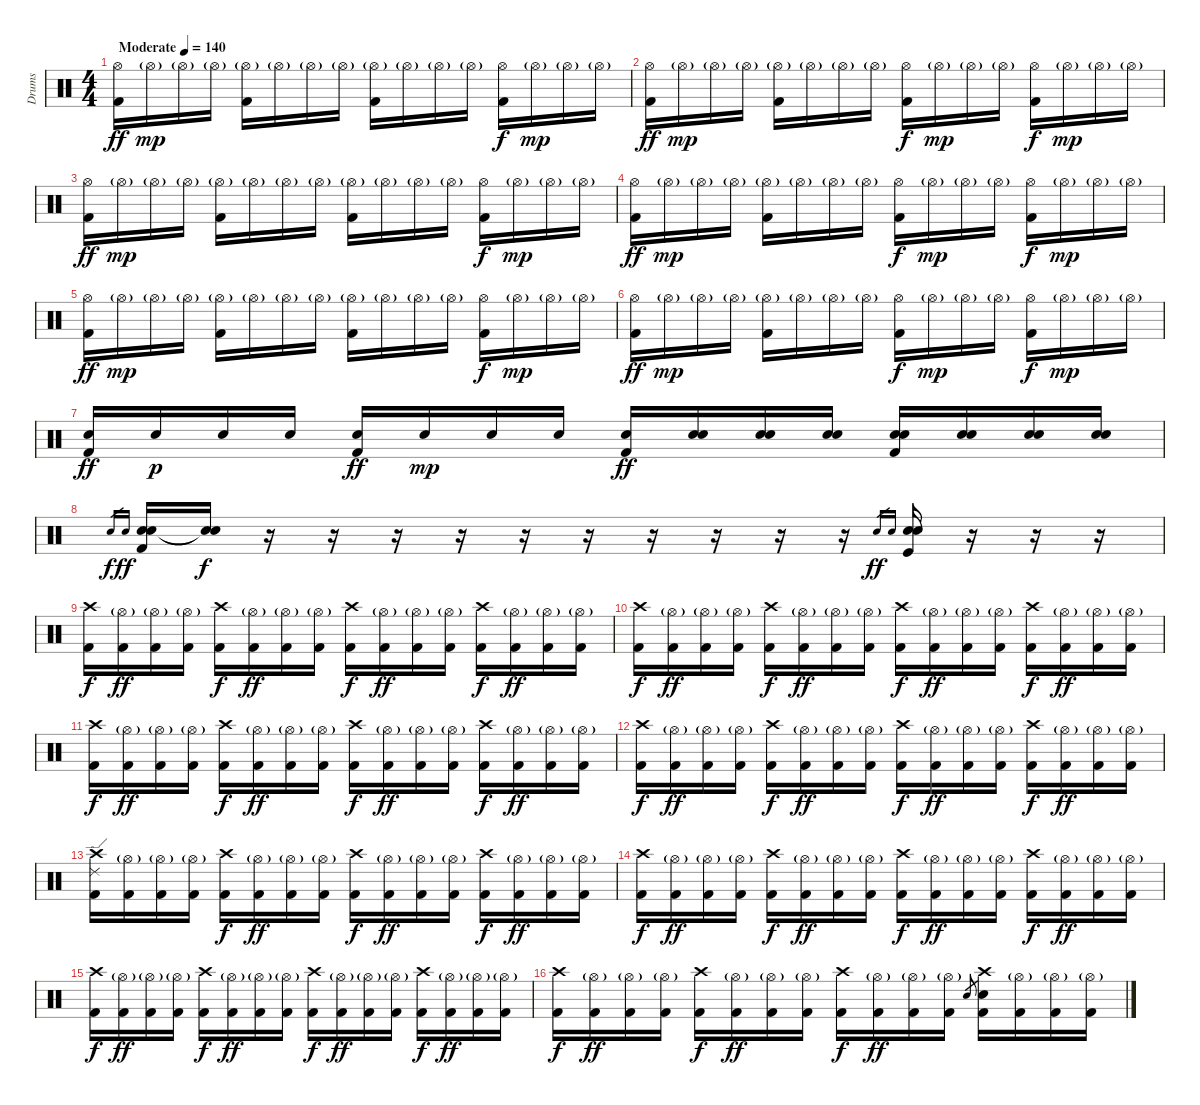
\track ("Drums" "Drums") {instrument percussion}
\staff {score}
\articulation defaults
\ts (4 4)
\tempo (140 "Moderate")
\clef neutral
\ks c
("Hi-Hat (open)" "Kick (hit) 2").16{dy ff} "Hi-Hat (open)"{g}.16{dy mp} "Hi-Hat (open)"{g}.16 "Hi-Hat (open)"{g}.16 ("Hi-Hat (open)"{g} "Kick (hit) 2").16 "Hi-Hat (open)"{g}.16 "Hi-Hat (open)"{g}.16 "Hi-Hat (open)"{g}.16 ("Hi-Hat (open)"{g} "Kick (hit) 2").16 "Hi-Hat (open)"{g}.16 "Hi-Hat (open)"{g}.16 "Hi-Hat (open)"{g}.16 ("Hi-Hat (open)" "Kick (hit) 2").16{dy f} "Hi-Hat (open)"{g}.16{dy mp} "Hi-Hat (open)"{g}.16 "Hi-Hat (open)"{g}.16 |
("Hi-Hat (open)" "Kick (hit) 2").16{dy ff} "Hi-Hat (open)"{g}.16{dy mp} "Hi-Hat (open)"{g}.16 "Hi-Hat (open)"{g}.16 ("Hi-Hat (open)"{g} "Kick (hit) 2").16 "Hi-Hat (open)"{g}.16 "Hi-Hat (open)"{g}.16 "Hi-Hat (open)"{g}.16 ("Hi-Hat (open)" "Kick (hit) 2").16{dy f} "Hi-Hat (open)"{g}.16{dy mp} "Hi-Hat (open)"{g}.16 "Hi-Hat (open)"{g}.16 ("Hi-Hat (open)" "Kick (hit) 2").16{dy f} "Hi-Hat (open)"{g}.16{dy mp} "Hi-Hat (open)"{g}.16 "Hi-Hat (open)"{g}.16 |
("Hi-Hat (open)" "Kick (hit) 2").16{dy ff} "Hi-Hat (open)"{g}.16{dy mp} "Hi-Hat (open)"{g}.16 "Hi-Hat (open)"{g}.16 ("Hi-Hat (open)"{g} "Kick (hit) 2").16 "Hi-Hat (open)"{g}.16 "Hi-Hat (open)"{g}.16 "Hi-Hat (open)"{g}.16 ("Hi-Hat (open)"{g} "Kick (hit) 2").16 "Hi-Hat (open)"{g}.16 "Hi-Hat (open)"{g}.16 "Hi-Hat (open)"{g}.16 ("Hi-Hat (open)" "Kick (hit) 2").16{dy f} "Hi-Hat (open)"{g}.16{dy mp} "Hi-Hat (open)"{g}.16 "Hi-Hat (open)"{g}.16 |
("Hi-Hat (open)" "Kick (hit) 2").16{dy ff} "Hi-Hat (open)"{g}.16{dy mp} "Hi-Hat (open)"{g}.16 "Hi-Hat (open)"{g}.16 ("Hi-Hat (open)"{g} "Kick (hit) 2").16 "Hi-Hat (open)"{g}.16 "Hi-Hat (open)"{g}.16 "Hi-Hat (open)"{g}.16 ("Hi-Hat (open)" "Kick (hit) 2").16{dy f} "Hi-Hat (open)"{g}.16{dy mp} "Hi-Hat (open)"{g}.16 "Hi-Hat (open)"{g}.16 ("Hi-Hat (open)" "Kick (hit) 2").16{dy f} "Hi-Hat (open)"{g}.16{dy mp} "Hi-Hat (open)"{g}.16 "Hi-Hat (open)"{g}.16 |
("Hi-Hat (open)" "Kick (hit) 2").16{dy ff} "Hi-Hat (open)"{g}.16{dy mp} "Hi-Hat (open)"{g}.16 "Hi-Hat (open)"{g}.16 ("Hi-Hat (open)"{g} "Kick (hit) 2").16 "Hi-Hat (open)"{g}.16 "Hi-Hat (open)"{g}.16 "Hi-Hat (open)"{g}.16 ("Hi-Hat (open)"{g} "Kick (hit) 2").16 "Hi-Hat (open)"{g}.16 "Hi-Hat (open)"{g}.16 "Hi-Hat (open)"{g}.16 ("Hi-Hat (open)" "Kick (hit) 2").16{dy f} "Hi-Hat (open)"{g}.16{dy mp} "Hi-Hat (open)"{g}.16 "Hi-Hat (open)"{g}.16 |
("Hi-Hat (open)" "Kick (hit) 2").16{dy ff} "Hi-Hat (open)"{g}.16{dy mp} "Hi-Hat (open)"{g}.16 "Hi-Hat (open)"{g}.16 ("Hi-Hat (open)"{g} "Kick (hit) 2").16 "Hi-Hat (open)"{g}.16 "Hi-Hat (open)"{g}.16 "Hi-Hat (open)"{g}.16 ("Hi-Hat (open)" "Kick (hit) 2").16{dy f} "Hi-Hat (open)"{g}.16{dy mp} "Hi-Hat (open)"{g}.16 "Hi-Hat (open)"{g}.16 ("Hi-Hat (open)" "Kick (hit) 2").16{dy f} "Hi-Hat (open)"{g}.16{dy mp} "Hi-Hat (open)"{g}.16 "Hi-Hat (open)"{g}.16 |
("Electric Snare (hit)" "Kick (hit) 2").16{dy ff} "Electric Snare (hit)".16{dy p} "Electric Snare (hit)".16 "Electric Snare (hit)".16 ("Electric Snare (hit)" "Kick (hit) 2").16{dy ff} "Electric Snare (hit)".16{dy mp} "Electric Snare (hit)".16 "Electric Snare (hit)".16 ("Electric Snare (hit)" "Kick (hit) 2").16{dy ff} ("Electric Snare (hit)" "Electric Snare (hit)").16 ("Electric Snare (hit)" "Electric Snare (hit)").16 ("Electric Snare (hit)" "Electric Snare (hit)").16 ("Electric Snare (hit)" "Electric Snare (hit)" "Kick (hit) 2").16 ("Electric Snare (hit)" "Electric Snare (hit)").16 ("Electric Snare (hit)" "Electric Snare (hit)").16 ("Electric Snare (hit)" "Electric Snare (hit)").16 |
"Electric Snare (hit)".16{gr dy f} "Snare (hit) 2".16{gr dy ff} ("Electric Snare (hit)" "Snare (hit) 2" "Kick (hit) 2").16 ("Electric Snare (hit)"{t} "Snare (hit)"{t}).16{dy f} r.16 r.16 r.16 r.16 r.16 r.16 r.16 r.16 r.16 r.16 "Electric Snare (hit)".16{gr dy ff} "Snare (hit) 2".16{gr} ("Electric Snare (hit)" "Snare (hit) 2" "Kick (hit)").16 r.16 r.16 r.16 |
("Crash high (hit)" "Kick (hit) 2").16{dy f} ("Hi-Hat (open)"{g} "Kick (hit) 2").16{dy ff} ("Hi-Hat (open)"{g} "Kick (hit) 2").16 ("Hi-Hat (open)"{g} "Kick (hit) 2").16 ("Crash high (hit)" "Kick (hit) 2").16{dy f} ("Hi-Hat (open)"{g} "Kick (hit) 2").16{dy ff} ("Hi-Hat (open)"{g} "Kick (hit) 2").16 ("Hi-Hat (open)"{g} "Kick (hit) 2").16 ("Crash high (hit)" "Kick (hit) 2").16{dy f} ("Hi-Hat (open)"{g} "Kick (hit) 2").16{dy ff} ("Hi-Hat (open)"{g} "Kick (hit) 2").16 ("Hi-Hat (open)"{g} "Kick (hit) 2").16 ("Crash high (hit)" "Kick (hit) 2").16{dy f} ("Hi-Hat (open)"{g} "Kick (hit) 2").16{dy ff} ("Hi-Hat (open)"{g} "Kick (hit) 2").16 ("Hi-Hat (open)"{g} "Kick (hit) 2").16 |
("Crash high (hit)" "Kick (hit) 2").16{dy f} ("Hi-Hat (open)"{g} "Kick (hit) 2").16{dy ff} ("Hi-Hat (open)"{g} "Kick (hit) 2").16 ("Hi-Hat (open)"{g} "Kick (hit) 2").16 ("Crash high (hit)" "Kick (hit) 2").16{dy f} ("Hi-Hat (open)"{g} "Kick (hit) 2").16{dy ff} ("Hi-Hat (open)"{g} "Kick (hit) 2").16 ("Hi-Hat (open)"{g} "Kick (hit) 2").16 ("Crash high (hit)" "Kick (hit) 2").16{dy f} ("Hi-Hat (open)"{g} "Kick (hit) 2").16{dy ff} ("Hi-Hat (open)"{g} "Kick (hit) 2").16 ("Hi-Hat (open)"{g} "Kick (hit) 2").16 ("Crash high (hit)" "Kick (hit) 2").16{dy f} ("Hi-Hat (open)"{g} "Kick (hit) 2").16{dy ff} ("Hi-Hat (open)"{g} "Kick (hit) 2").16 ("Hi-Hat (open)"{g} "Kick (hit) 2").16 |
("Crash high (hit)" "Kick (hit) 2").16{dy f} ("Hi-Hat (open)"{g} "Kick (hit) 2").16{dy ff} ("Hi-Hat (open)"{g} "Kick (hit) 2").16 ("Hi-Hat (open)"{g} "Kick (hit) 2").16 ("Crash high (hit)" "Kick (hit) 2").16{dy f} ("Hi-Hat (open)"{g} "Kick (hit) 2").16{dy ff} ("Hi-Hat (open)"{g} "Kick (hit) 2").16 ("Hi-Hat (open)"{g} "Kick (hit) 2").16 ("Crash high (hit)" "Kick (hit) 2").16{dy f} ("Hi-Hat (open)"{g} "Kick (hit) 2").16{dy ff} ("Hi-Hat (open)"{g} "Kick (hit) 2").16 ("Hi-Hat (open)"{g} "Kick (hit) 2").16 ("Crash high (hit)" "Kick (hit) 2").16{dy f} ("Hi-Hat (open)"{g} "Kick (hit) 2").16{dy ff} ("Hi-Hat (open)"{g} "Kick (hit) 2").16 ("Hi-Hat (open)"{g} "Kick (hit) 2").16 |
("Crash high (hit)" "Kick (hit) 2").16{dy f} ("Hi-Hat (open)"{g} "Kick (hit) 2").16{dy ff} ("Hi-Hat (open)"{g} "Kick (hit) 2").16 ("Hi-Hat (open)"{g} "Kick (hit) 2").16 ("Crash high (hit)" "Kick (hit) 2").16{dy f} ("Hi-Hat (open)"{g} "Kick (hit) 2").16{dy ff} ("Hi-Hat (open)"{g} "Kick (hit) 2").16 ("Hi-Hat (open)"{g} "Kick (hit) 2").16 ("Crash high (hit)" "Kick (hit) 2").16{dy f} ("Hi-Hat (open)"{g} "Kick (hit) 2").16{dy ff} ("Hi-Hat (open)"{g} "Kick (hit) 2").16 ("Hi-Hat (open)"{g} "Kick (hit) 2").16 ("Crash high (hit)" "Kick (hit) 2").16{dy f} ("Hi-Hat (open)"{g} "Kick (hit) 2").16{dy ff} ("Hi-Hat (open)"{g} "Kick (hit) 2").16 ("Hi-Hat (open)"{g} "Kick (hit) 2").16 |
("Crash high (hit)" "Kick (hit) 2" "Ride (edge) 2").16 ("Hi-Hat (open)"{g} "Kick (hit) 2").16 ("Hi-Hat (open)"{g} "Kick (hit) 2").16 ("Hi-Hat (open)"{g} "Kick (hit) 2").16 ("Crash high (hit)" "Kick (hit) 2").16{dy f} ("Hi-Hat (open)"{g} "Kick (hit) 2").16{dy ff} ("Hi-Hat (open)"{g} "Kick (hit) 2").16 ("Hi-Hat (open)"{g} "Kick (hit) 2").16 ("Crash high (hit)" "Kick (hit) 2").16{dy f} ("Hi-Hat (open)"{g} "Kick (hit) 2").16{dy ff} ("Hi-Hat (open)"{g} "Kick (hit) 2").16 ("Hi-Hat (open)"{g} "Kick (hit) 2").16 ("Crash high (hit)" "Kick (hit) 2").16{dy f} ("Hi-Hat (open)"{g} "Kick (hit) 2").16{dy ff} ("Hi-Hat (open)"{g} "Kick (hit) 2").16 ("Hi-Hat (open)"{g} "Kick (hit) 2").16 |
("Crash high (hit)" "Kick (hit) 2").16{dy f} ("Hi-Hat (open)"{g} "Kick (hit) 2").16{dy ff} ("Hi-Hat (open)"{g} "Kick (hit) 2").16 ("Hi-Hat (open)"{g} "Kick (hit) 2").16 ("Crash high (hit)" "Kick (hit) 2").16{dy f} ("Hi-Hat (open)"{g} "Kick (hit) 2").16{dy ff} ("Hi-Hat (open)"{g} "Kick (hit) 2").16 ("Hi-Hat (open)"{g} "Kick (hit) 2").16 ("Crash high (hit)" "Kick (hit) 2").16{dy f} ("Hi-Hat (open)"{g} "Kick (hit) 2").16{dy ff} ("Hi-Hat (open)"{g} "Kick (hit) 2").16 ("Hi-Hat (open)"{g} "Kick (hit) 2").16 ("Crash high (hit)" "Kick (hit) 2").16{dy f} ("Hi-Hat (open)"{g} "Kick (hit) 2").16{dy ff} ("Hi-Hat (open)"{g} "Kick (hit) 2").16 ("Hi-Hat (open)"{g} "Kick (hit) 2").16 |
("Crash high (hit)" "Kick (hit) 2").16{dy f} ("Hi-Hat (open)"{g} "Kick (hit) 2").16{dy ff} ("Hi-Hat (open)"{g} "Kick (hit) 2").16 ("Hi-Hat (open)"{g} "Kick (hit) 2").16 ("Crash high (hit)" "Kick (hit) 2").16{dy f} ("Hi-Hat (open)"{g} "Kick (hit) 2").16{dy ff} ("Hi-Hat (open)"{g} "Kick (hit) 2").16 ("Hi-Hat (open)"{g} "Kick (hit) 2").16 ("Crash high (hit)" "Kick (hit) 2").16{dy f} ("Hi-Hat (open)"{g} "Kick (hit) 2").16{dy ff} ("Hi-Hat (open)"{g} "Kick (hit) 2").16 ("Hi-Hat (open)"{g} "Kick (hit) 2").16 ("Crash high (hit)" "Kick (hit) 2").16{dy f} ("Hi-Hat (open)"{g} "Kick (hit) 2").16{dy ff} ("Hi-Hat (open)"{g} "Kick (hit) 2").16 ("Hi-Hat (open)"{g} "Kick (hit) 2").16 |
("Crash high (hit)" "Kick (hit) 2").16{dy f} ("Hi-Hat (open)"{g} "Kick (hit) 2").16{dy ff} ("Hi-Hat (open)"{g} "Kick (hit) 2").16 ("Hi-Hat (open)"{g} "Kick (hit) 2").16 ("Crash high (hit)" "Kick (hit) 2").16{dy f} ("Hi-Hat (open)"{g} "Kick (hit) 2").16{dy ff} ("Hi-Hat (open)"{g} "Kick (hit) 2").16 ("Hi-Hat (open)"{g} "Kick (hit) 2").16 ("Crash high (hit)" "Kick (hit) 2").16{dy f} ("Hi-Hat (open)"{g} "Kick (hit) 2").16{dy ff} ("Hi-Hat (open)"{g} "Kick (hit) 2").16 ("Hi-Hat (open)"{g} "Kick (hit) 2").16 "Electric Snare (hit)".8{gr} ("Crash high (hit)" "Kick (hit) 2" "Electric Snare (hit)").16 ("Hi-Hat (open)"{g} "Kick (hit) 2").16 ("Hi-Hat (open)"{g} "Kick (hit) 2").16 ("Hi-Hat (open)"{g} "Kick (hit) 2").16
